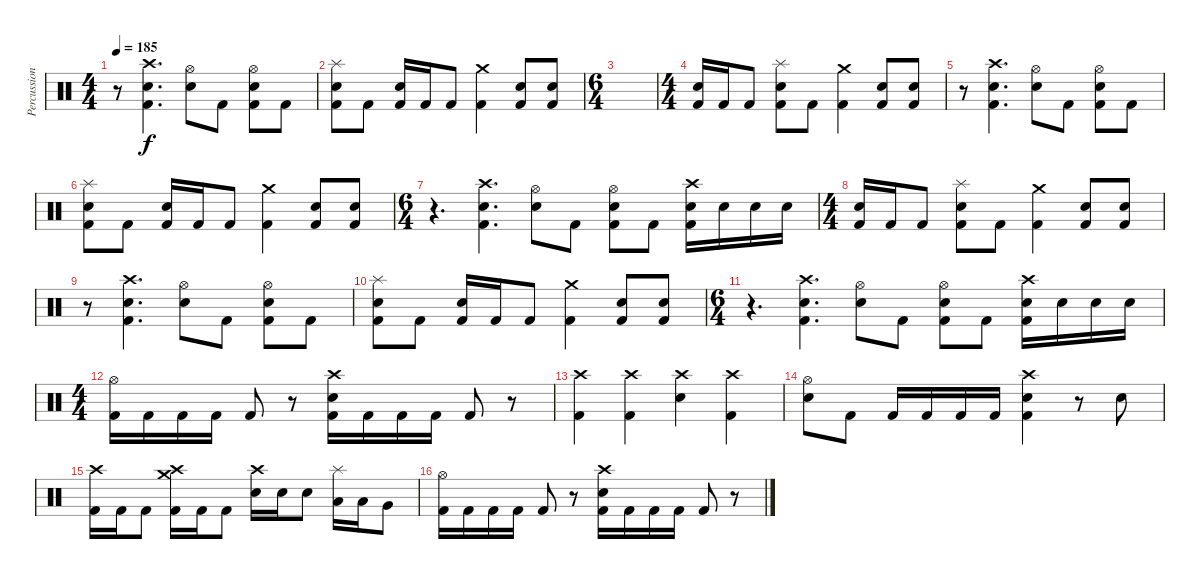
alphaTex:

\track ("Percussion" "Percussion") {instrument percussion}
\staff {score}
\articulation defaults
\ts (4 4)
\tempo 185
\clef neutral
\ks c
r.8{dy f} ("Crash high (hit)" "Electric Snare (hit)" "Kick (hit) 2").4{d} ("Hi-Hat (open)" "Electric Snare (hit)").8 "Kick (hit) 2".8 ("Hi-Hat (open)" "Electric Snare (hit)" "Kick (hit) 2").8 "Kick (hit) 2".8 |
("Splash (hit)" "Electric Snare (hit)" "Kick (hit) 2").8 "Kick (hit) 2".8 ("Electric Snare (hit)" "Kick (hit) 2").16 "Kick (hit) 2".16 "Kick (hit) 2".8 ("Crash medium (hit)" "Kick (hit) 2").4 ("Electric Snare (hit)" "Kick (hit) 2").8 ("Electric Snare (hit)" "Kick (hit) 2").8 |
\ts (6 4)
|
\ts (4 4)
("Electric Snare (hit)" "Kick (hit) 2").16 "Kick (hit) 2".16 "Kick (hit) 2".8 ("Splash (hit)" "Electric Snare (hit)" "Kick (hit) 2").8 "Kick (hit) 2".8 ("Crash medium (hit)" "Kick (hit) 2").4 ("Electric Snare (hit)" "Kick (hit) 2").8 ("Electric Snare (hit)" "Kick (hit) 2").8 |
r.8 ("Crash high (hit)" "Electric Snare (hit)" "Kick (hit) 2").4{d} ("Hi-Hat (open)" "Electric Snare (hit)").8 "Kick (hit) 2".8 ("Hi-Hat (open)" "Electric Snare (hit)" "Kick (hit) 2").8 "Kick (hit) 2".8 |
("Splash (hit)" "Electric Snare (hit)" "Kick (hit) 2").8 "Kick (hit) 2".8 ("Electric Snare (hit)" "Kick (hit) 2").16 "Kick (hit) 2".16 "Kick (hit) 2".8 ("Crash medium (hit)" "Kick (hit) 2").4 ("Electric Snare (hit)" "Kick (hit) 2").8 ("Electric Snare (hit)" "Kick (hit) 2").8 |
\ts (6 4)
r.4{d} ("Crash high (hit)" "Electric Snare (hit)" "Kick (hit) 2").4{d} ("Hi-Hat (open)" "Electric Snare (hit)").8 "Kick (hit) 2".8 ("Hi-Hat (open)" "Electric Snare (hit)" "Kick (hit) 2").8 "Kick (hit) 2".8 ("Crash high (hit)" "Electric Snare (hit)" "Kick (hit) 2").16 "Electric Snare (hit)".16 "Electric Snare (hit)".16 "Electric Snare (hit)".16 |
\ts (4 4)
("Electric Snare (hit)" "Kick (hit) 2").16 "Kick (hit) 2".16 "Kick (hit) 2".8 ("Splash (hit)" "Electric Snare (hit)" "Kick (hit) 2").8 "Kick (hit) 2".8 ("Crash medium (hit)" "Kick (hit) 2").4 ("Electric Snare (hit)" "Kick (hit) 2").8 ("Electric Snare (hit)" "Kick (hit) 2").8 |
r.8 ("Crash high (hit)" "Electric Snare (hit)" "Kick (hit) 2").4{d} ("Hi-Hat (open)" "Electric Snare (hit)").8 "Kick (hit) 2".8 ("Hi-Hat (open)" "Electric Snare (hit)" "Kick (hit) 2").8 "Kick (hit) 2".8 |
("Splash (hit)" "Electric Snare (hit)" "Kick (hit) 2").8 "Kick (hit) 2".8 ("Electric Snare (hit)" "Kick (hit) 2").16 "Kick (hit) 2".16 "Kick (hit) 2".8 ("Crash medium (hit)" "Kick (hit) 2").4 ("Electric Snare (hit)" "Kick (hit) 2").8 ("Electric Snare (hit)" "Kick (hit) 2").8 |
\ts (6 4)
r.4{d} ("Crash high (hit)" "Electric Snare (hit)" "Kick (hit) 2").4{d} ("Hi-Hat (open)" "Electric Snare (hit)").8 "Kick (hit) 2".8 ("Hi-Hat (open)" "Electric Snare (hit)" "Kick (hit) 2").8 "Kick (hit) 2".8 ("Crash high (hit)" "Electric Snare (hit)" "Kick (hit) 2").16 "Electric Snare (hit)".16 "Electric Snare (hit)".16 "Electric Snare (hit)".16 |
\ts (4 4)
("Hi-Hat (open)" "Kick (hit) 2").16 "Kick (hit) 2".16 "Kick (hit) 2".16 "Kick (hit) 2".16 "Kick (hit) 2".8 r.8 ("Crash high (hit)" "Electric Snare (hit)" "Kick (hit) 2").16 "Kick (hit) 2".16 "Kick (hit) 2".16 "Kick (hit) 2".16 "Kick (hit) 2".8 r.8 |
("Crash high (hit)" "Kick (hit) 2").4 ("Crash high (hit)" "Kick (hit) 2").4 ("Crash high (hit)" "Electric Snare (hit)").4 ("Crash high (hit)" "Kick (hit) 2").4 |
("Hi-Hat (open)" "Electric Snare (hit)").8 "Kick (hit) 2".8 "Kick (hit) 2".16 "Kick (hit) 2".16 "Kick (hit) 2".16 "Kick (hit) 2".16 ("Crash high (hit)" "Electric Snare (hit)" "Kick (hit) 2").4 r.8 "Electric Snare (hit)".8 |
("Crash high (hit)" "Kick (hit) 2").16 "Kick (hit) 2".16 "Kick (hit) 2".8 ("Crash high (hit)" "Crash medium (hit)" "Kick (hit) 2").16 "Kick (hit) 2".16 "Kick (hit) 2".8 ("Crash high (hit)" "Electric Snare (hit)").16 "Electric Snare (hit)".16 "Electric Snare (hit)".8 ("Splash (hit)" "Low Tom (hit)").16 "Low Tom (hit)".16 "Very Low Tom (hit)".8 |
("Hi-Hat (open)" "Kick (hit) 2").16 "Kick (hit) 2".16 "Kick (hit) 2".16 "Kick (hit) 2".16 "Kick (hit) 2".8 r.8 ("Crash high (hit)" "Electric Snare (hit)" "Kick (hit) 2").16 "Kick (hit) 2".16 "Kick (hit) 2".16 "Kick (hit) 2".16 "Kick (hit) 2".8 r.8
